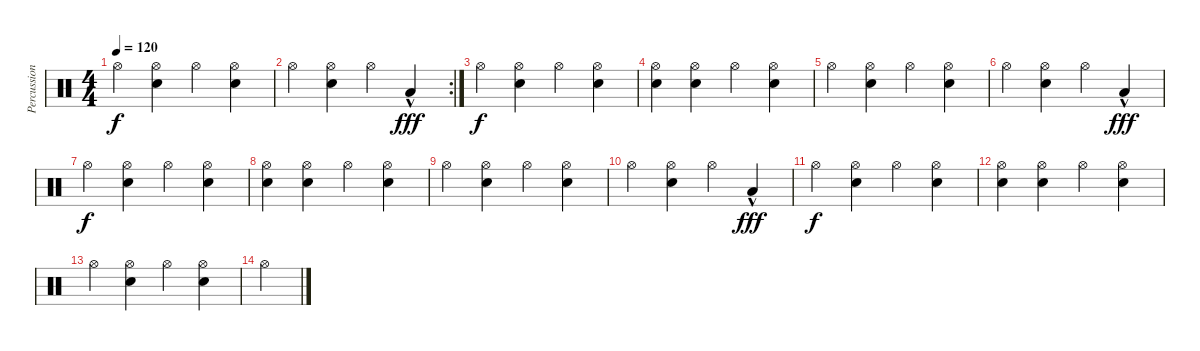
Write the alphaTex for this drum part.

\track ("Percussion" "Percussion") {instrument percussion}
\staff {score}
\articulation defaults
\ts (4 4)
\tempo 120
\clef neutral
\ks c "Hi-Hat (open)".4{dy f}
("Hi-Hat (open)" "Snare (hit) 2").4 "Hi-Hat (open)".4 ("Hi-Hat (open)" "Snare (hit) 2").4 |
\rc 2 "Hi-Hat (open)".4
("Hi-Hat (open)" "Snare (hit) 2").4 "Hi-Hat (open)".4 "Low Tom (hit)"{hac}.4{dy fff} |
"Hi-Hat (open)".4{dy f} ("Hi-Hat (open)" "Snare (hit) 2").4 "Hi-Hat (open)".4 ("Hi-Hat (open)" "Snare (hit) 2").4 |
("Hi-Hat (open)" "Snare (hit)").4 ("Hi-Hat (open)" "Snare (hit) 2").4 "Hi-Hat (open)".4 ("Hi-Hat (open)" "Snare (hit) 2").4 |
"Hi-Hat (open)".4 ("Hi-Hat (open)" "Snare (hit) 2").4 "Hi-Hat (open)".4 ("Hi-Hat (open)" "Snare (hit) 2").4 |
"Hi-Hat (open)".4 ("Hi-Hat (open)" "Snare (hit) 2").4 "Hi-Hat (open)".4 "Low Tom (hit)"{hac}.4{dy fff} |
"Hi-Hat (open)".4{dy f} ("Hi-Hat (open)" "Snare (hit) 2").4 "Hi-Hat (open)".4 ("Hi-Hat (open)" "Snare (hit) 2").4 |
("Hi-Hat (open)" "Snare (hit)").4 ("Hi-Hat (open)" "Snare (hit) 2").4 "Hi-Hat (open)".4 ("Hi-Hat (open)" "Snare (hit) 2").4 |
"Hi-Hat (open)".4 ("Hi-Hat (open)" "Snare (hit) 2").4 "Hi-Hat (open)".4 ("Hi-Hat (open)" "Snare (hit) 2").4 |
"Hi-Hat (open)".4 ("Hi-Hat (open)" "Snare (hit) 2").4 "Hi-Hat (open)".4 "Low Tom (hit)"{hac}.4{dy fff} |
"Hi-Hat (open)".4{dy f} ("Hi-Hat (open)" "Snare (hit) 2").4 "Hi-Hat (open)".4 ("Hi-Hat (open)" "Snare (hit) 2").4 |
("Hi-Hat (open)" "Snare (hit)").4 ("Hi-Hat (open)" "Snare (hit) 2").4 "Hi-Hat (open)".4 ("Hi-Hat (open)" "Snare (hit) 2").4 |
"Hi-Hat (open)".4 ("Hi-Hat (open)" "Snare (hit) 2").4 "Hi-Hat (open)".4 ("Hi-Hat (open)" "Snare (hit) 2").4 |
"Hi-Hat (open)".4
